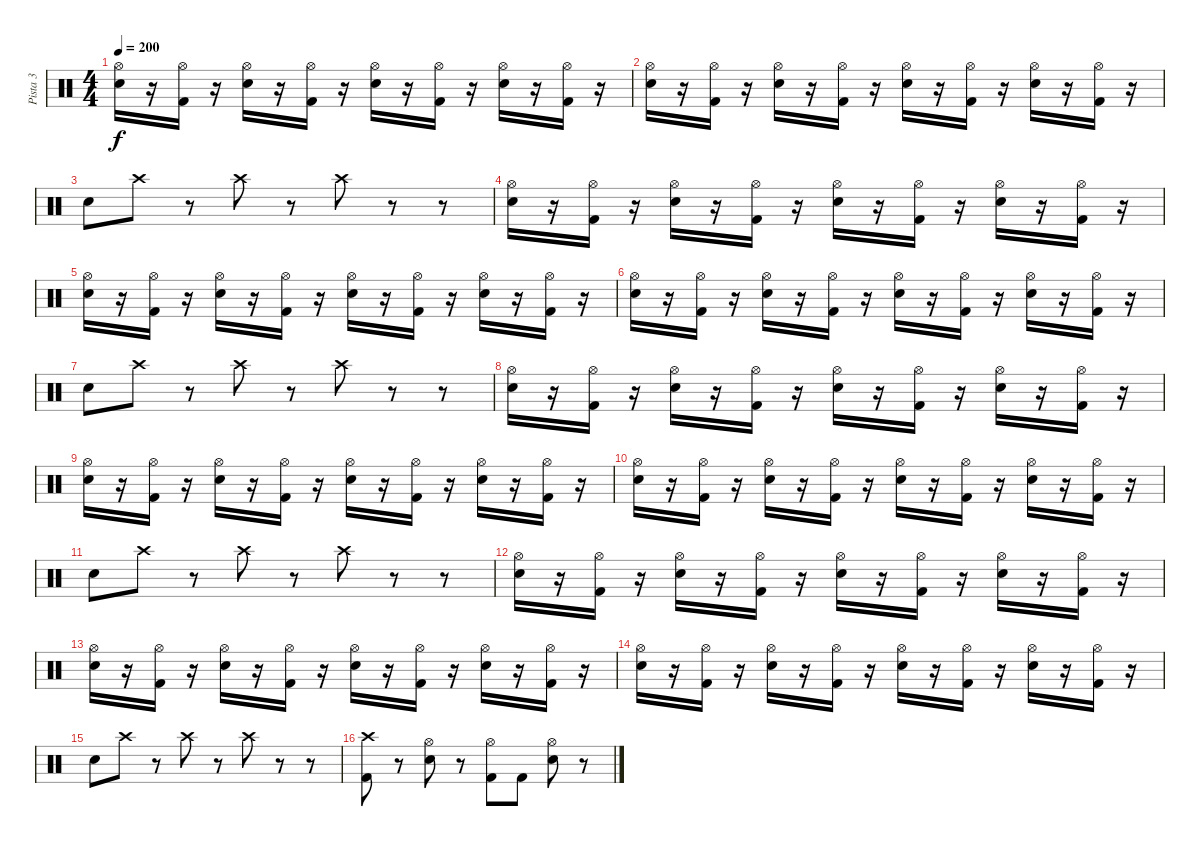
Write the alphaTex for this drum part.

\track ("Pista 3" "Pista 3") {instrument percussion}
\staff {score}
\articulation defaults
\ts (4 4)
\tempo 200
\clef neutral
\ks c
("Hi-Hat (open)" "Electric Snare (hit)").16{dy f} r.16 ("Hi-Hat (open)" "Kick (hit) 2").16 r.16 ("Hi-Hat (open)" "Electric Snare (hit)").16 r.16 ("Hi-Hat (open)" "Kick (hit) 2").16 r.16 ("Hi-Hat (open)" "Electric Snare (hit)").16 r.16 ("Hi-Hat (open)" "Kick (hit) 2").16 r.16 ("Hi-Hat (open)" "Electric Snare (hit)").16 r.16 ("Hi-Hat (open)" "Kick (hit) 2").16 r.16 |
("Hi-Hat (open)" "Electric Snare (hit)").16 r.16 ("Hi-Hat (open)" "Kick (hit) 2").16 r.16 ("Hi-Hat (open)" "Electric Snare (hit)").16 r.16 ("Hi-Hat (open)" "Kick (hit) 2").16 r.16 ("Hi-Hat (open)" "Electric Snare (hit)").16 r.16 ("Hi-Hat (open)" "Kick (hit) 2").16 r.16 ("Hi-Hat (open)" "Electric Snare (hit)").16 r.16 ("Hi-Hat (open)" "Kick (hit) 2").16 r.16 |
"Electric Snare (hit)".8 "Crash high (hit)".8 r.8 "Crash high (hit)".8 r.8 "Crash high (hit)".8 r.8 r.8 |
("Hi-Hat (open)" "Electric Snare (hit)").16 r.16 ("Hi-Hat (open)" "Kick (hit) 2").16 r.16 ("Hi-Hat (open)" "Electric Snare (hit)").16 r.16 ("Hi-Hat (open)" "Kick (hit) 2").16 r.16 ("Hi-Hat (open)" "Electric Snare (hit)").16 r.16 ("Hi-Hat (open)" "Kick (hit) 2").16 r.16 ("Hi-Hat (open)" "Electric Snare (hit)").16 r.16 ("Hi-Hat (open)" "Kick (hit) 2").16 r.16 |
("Hi-Hat (open)" "Electric Snare (hit)").16 r.16 ("Hi-Hat (open)" "Kick (hit) 2").16 r.16 ("Hi-Hat (open)" "Electric Snare (hit)").16 r.16 ("Hi-Hat (open)" "Kick (hit) 2").16 r.16 ("Hi-Hat (open)" "Electric Snare (hit)").16 r.16 ("Hi-Hat (open)" "Kick (hit) 2").16 r.16 ("Hi-Hat (open)" "Electric Snare (hit)").16 r.16 ("Hi-Hat (open)" "Kick (hit) 2").16 r.16 |
("Hi-Hat (open)" "Electric Snare (hit)").16 r.16 ("Hi-Hat (open)" "Kick (hit) 2").16 r.16 ("Hi-Hat (open)" "Electric Snare (hit)").16 r.16 ("Hi-Hat (open)" "Kick (hit) 2").16 r.16 ("Hi-Hat (open)" "Electric Snare (hit)").16 r.16 ("Hi-Hat (open)" "Kick (hit) 2").16 r.16 ("Hi-Hat (open)" "Electric Snare (hit)").16 r.16 ("Hi-Hat (open)" "Kick (hit) 2").16 r.16 |
"Electric Snare (hit)".8 "Crash high (hit)".8 r.8 "Crash high (hit)".8 r.8 "Crash high (hit)".8 r.8 r.8 |
("Hi-Hat (open)" "Electric Snare (hit)").16 r.16 ("Hi-Hat (open)" "Kick (hit) 2").16 r.16 ("Hi-Hat (open)" "Electric Snare (hit)").16 r.16 ("Hi-Hat (open)" "Kick (hit) 2").16 r.16 ("Hi-Hat (open)" "Electric Snare (hit)").16 r.16 ("Hi-Hat (open)" "Kick (hit) 2").16 r.16 ("Hi-Hat (open)" "Electric Snare (hit)").16 r.16 ("Hi-Hat (open)" "Kick (hit) 2").16 r.16 |
("Hi-Hat (open)" "Electric Snare (hit)").16 r.16 ("Hi-Hat (open)" "Kick (hit) 2").16 r.16 ("Hi-Hat (open)" "Electric Snare (hit)").16 r.16 ("Hi-Hat (open)" "Kick (hit) 2").16 r.16 ("Hi-Hat (open)" "Electric Snare (hit)").16 r.16 ("Hi-Hat (open)" "Kick (hit) 2").16 r.16 ("Hi-Hat (open)" "Electric Snare (hit)").16 r.16 ("Hi-Hat (open)" "Kick (hit) 2").16 r.16 |
("Hi-Hat (open)" "Electric Snare (hit)").16 r.16 ("Hi-Hat (open)" "Kick (hit) 2").16 r.16 ("Hi-Hat (open)" "Electric Snare (hit)").16 r.16 ("Hi-Hat (open)" "Kick (hit) 2").16 r.16 ("Hi-Hat (open)" "Electric Snare (hit)").16 r.16 ("Hi-Hat (open)" "Kick (hit) 2").16 r.16 ("Hi-Hat (open)" "Electric Snare (hit)").16 r.16 ("Hi-Hat (open)" "Kick (hit) 2").16 r.16 |
"Electric Snare (hit)".8 "Crash high (hit)".8 r.8 "Crash high (hit)".8 r.8 "Crash high (hit)".8 r.8 r.8 |
("Hi-Hat (open)" "Electric Snare (hit)").16 r.16 ("Hi-Hat (open)" "Kick (hit) 2").16 r.16 ("Hi-Hat (open)" "Electric Snare (hit)").16 r.16 ("Hi-Hat (open)" "Kick (hit) 2").16 r.16 ("Hi-Hat (open)" "Electric Snare (hit)").16 r.16 ("Hi-Hat (open)" "Kick (hit) 2").16 r.16 ("Hi-Hat (open)" "Electric Snare (hit)").16 r.16 ("Hi-Hat (open)" "Kick (hit) 2").16 r.16 |
("Hi-Hat (open)" "Electric Snare (hit)").16 r.16 ("Hi-Hat (open)" "Kick (hit) 2").16 r.16 ("Hi-Hat (open)" "Electric Snare (hit)").16 r.16 ("Hi-Hat (open)" "Kick (hit) 2").16 r.16 ("Hi-Hat (open)" "Electric Snare (hit)").16 r.16 ("Hi-Hat (open)" "Kick (hit) 2").16 r.16 ("Hi-Hat (open)" "Electric Snare (hit)").16 r.16 ("Hi-Hat (open)" "Kick (hit) 2").16 r.16 |
("Hi-Hat (open)" "Electric Snare (hit)").16 r.16 ("Hi-Hat (open)" "Kick (hit) 2").16 r.16 ("Hi-Hat (open)" "Electric Snare (hit)").16 r.16 ("Hi-Hat (open)" "Kick (hit) 2").16 r.16 ("Hi-Hat (open)" "Electric Snare (hit)").16 r.16 ("Hi-Hat (open)" "Kick (hit) 2").16 r.16 ("Hi-Hat (open)" "Electric Snare (hit)").16 r.16 ("Hi-Hat (open)" "Kick (hit) 2").16 r.16 |
"Electric Snare (hit)".8 "Crash high (hit)".8 r.8 "Crash high (hit)".8 r.8 "Crash high (hit)".8 r.8 r.8 |
("Crash high (hit)" "Kick (hit) 2").8 r.8 ("Hi-Hat (open)" "Electric Snare (hit)").8 r.8 ("Hi-Hat (open)" "Kick (hit) 2").8 "Kick (hit) 2".8 ("Hi-Hat (open)" "Electric Snare (hit)").8 r.8
